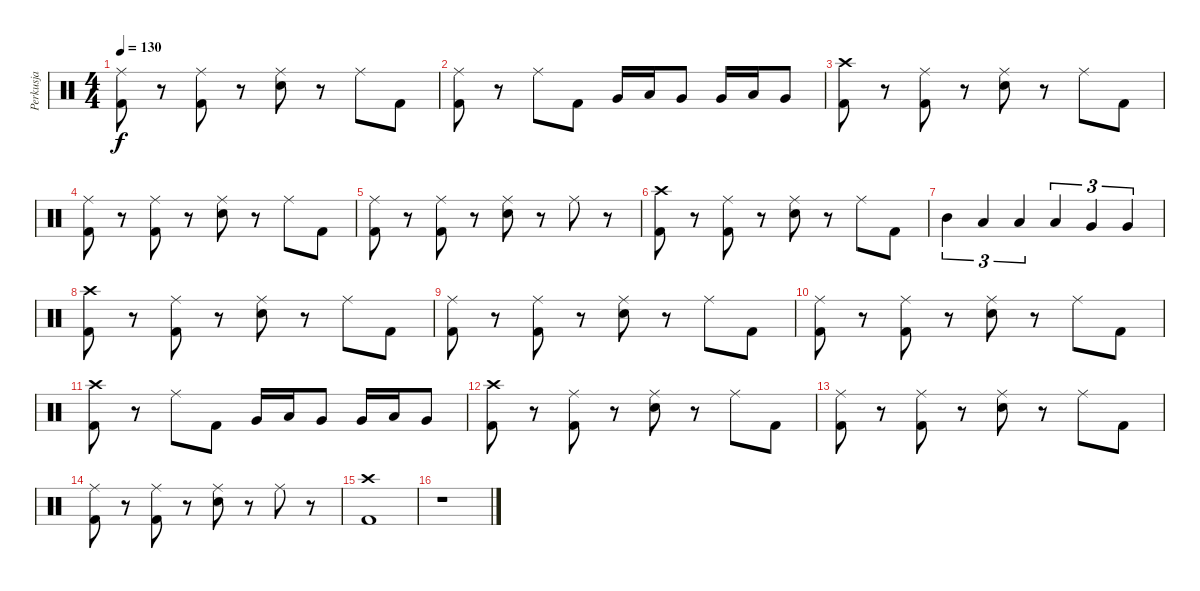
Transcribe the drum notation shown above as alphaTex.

\track ("Perkusja" "Perkusja") {instrument percussion}
\staff {score}
\articulation defaults
\ts (4 4)
\tempo 130
\clef neutral
\ks c
("Ride (middle)" "Kick (hit) 2").8{dy f} r.8 ("Ride (middle)" "Kick (hit) 2").8 r.8 ("Ride (middle)" "Snare (hit) 2").8 r.8 "Ride (middle)".8 "Kick (hit) 2".8 |
("Ride (middle)" "Kick (hit) 2").8 r.8 "Ride (middle)".8 "Kick (hit) 2".8 "Very Low Tom (hit)".16 "Low Floor Tom (hit)".16 "Very Low Tom (hit)".8 "Very Low Tom (hit)".16 "Low Floor Tom (hit)".16 "Very Low Tom (hit)".8 |
("Crash high (hit)" "Kick (hit) 2").8 r.8 ("Ride (middle)" "Kick (hit) 2").8 r.8 ("Ride (middle)" "Snare (hit) 2").8 r.8 "Ride (middle)".8 "Kick (hit) 2".8 |
("Ride (middle)" "Kick (hit) 2").8 r.8 ("Ride (middle)" "Kick (hit) 2").8 r.8 ("Ride (middle)" "Snare (hit) 2").8 r.8 "Ride (middle)".8 "Kick (hit) 2".8 |
("Ride (middle)" "Kick (hit) 2").8 r.8 ("Ride (middle)" "Kick (hit) 2").8 r.8 ("Ride (middle)" "Snare (hit) 2").8 r.8 "Ride (middle)".8 r.8 |
("Crash high (hit)" "Kick (hit) 2").8 r.8 ("Ride (middle)" "Kick (hit) 2").8 r.8 ("Ride (middle)" "Snare (hit) 2").8 r.8 "Ride (middle)".8 "Kick (hit) 2".8 |
"Mid Tom (hit)".4{tu (3 2)} "Low Tom (hit)".4{tu (3 2)} "Low Tom (hit)".4{tu (3 2)} "Low Tom (hit)".4{tu (3 2)} "Very Low Tom (hit)".4{tu (3 2)} "Very Low Tom (hit)".4{tu (3 2)} |
("Crash high (hit)" "Kick (hit) 2").8 r.8 ("Ride (middle)" "Kick (hit) 2").8 r.8 ("Ride (middle)" "Snare (hit) 2").8 r.8 "Ride (middle)".8 "Kick (hit) 2".8 |
("Ride (middle)" "Kick (hit) 2").8 r.8 ("Ride (middle)" "Kick (hit) 2").8 r.8 ("Ride (middle)" "Snare (hit) 2").8 r.8 "Ride (middle)".8 "Kick (hit) 2".8 |
("Ride (middle)" "Kick (hit) 2").8 r.8 ("Ride (middle)" "Kick (hit) 2").8 r.8 ("Ride (middle)" "Snare (hit) 2").8 r.8 "Ride (middle)".8 "Kick (hit) 2".8 |
("Crash high (hit)" "Kick (hit) 2").8 r.8 "Ride (middle)".8 "Kick (hit) 2".8 "Very Low Tom (hit)".16 "Low Floor Tom (hit)".16 "Very Low Tom (hit)".8 "Very Low Tom (hit)".16 "Low Floor Tom (hit)".16 "Very Low Tom (hit)".8 |
("Crash high (hit)" "Kick (hit) 2").8 r.8 ("Ride (middle)" "Kick (hit) 2").8 r.8 ("Ride (middle)" "Snare (hit) 2").8 r.8 "Ride (middle)".8 "Kick (hit) 2".8 |
("Ride (middle)" "Kick (hit) 2").8 r.8 ("Ride (middle)" "Kick (hit) 2").8 r.8 ("Ride (middle)" "Snare (hit) 2").8 r.8 "Ride (middle)".8 "Kick (hit) 2".8 |
("Ride (middle)" "Kick (hit) 2").8 r.8 ("Ride (middle)" "Kick (hit) 2").8 r.8 ("Ride (middle)" "Snare (hit) 2").8 r.8 "Ride (middle)".8 r.8 |
("Crash high (hit)" "Kick (hit) 2").1 |
r.1
